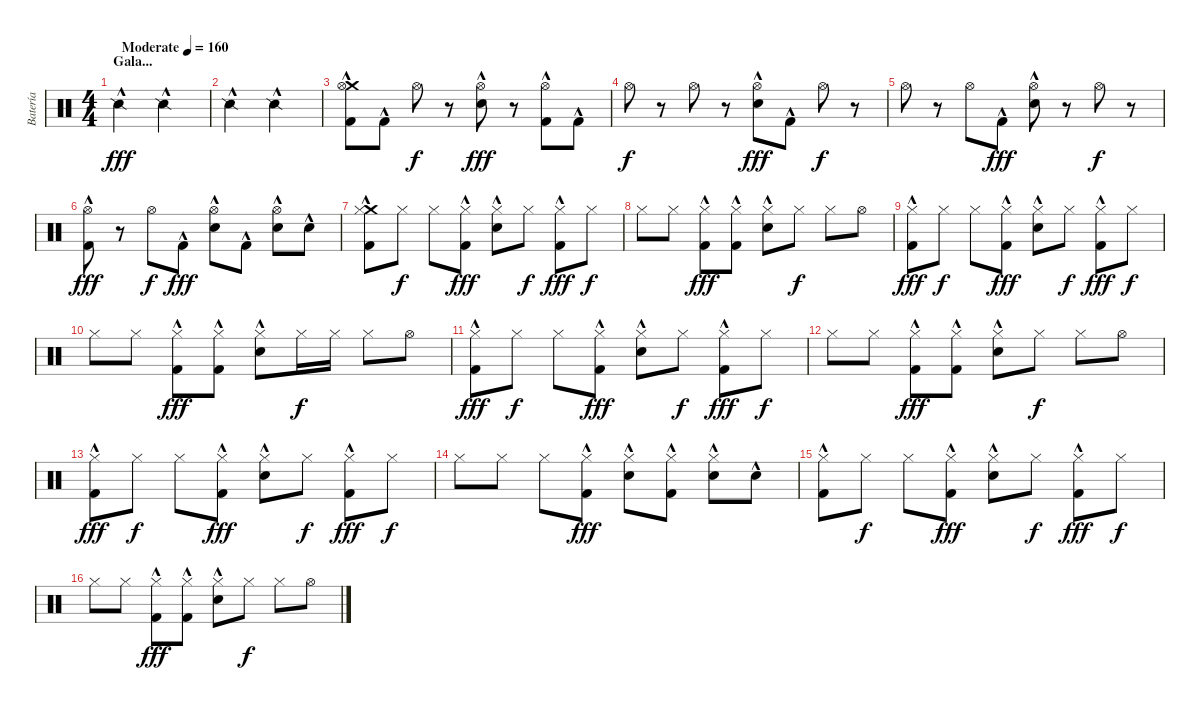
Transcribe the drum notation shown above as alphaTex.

\track ("Batería" "Batería") {instrument percussion}
\staff {score}
\articulation defaults
\ts (4 4)
\section ("" "Gala...")
\tempo (160 "Moderate")
\clef neutral
\ks c "Snare (side stick) 2"{hac}.2{dy fff} "Snare (side stick) 2"{hac}.2
|
"Snare (side stick) 2"{hac}.2 "Snare (side stick) 2"{hac}.2 |
("Crash medium (hit)"{hac} "Hi-Hat (open)" "Kick (hit) 2"{hac}).8 "Kick (hit) 2"{hac}.8 "Hi-Hat (open)".8{dy f} r.8 ("Snare (hit) 2"{hac} "Hi-Hat (open)").8{dy fff} r.8 ("Hi-Hat (open)" "Kick (hit) 2"{hac}).8 "Kick (hit) 2"{hac}.8 |
"Hi-Hat (open)".8{dy f} r.8 "Hi-Hat (open)".8 r.8 ("Snare (hit) 2"{hac} "Hi-Hat (open)").8{dy fff} "Kick (hit) 2"{hac}.8 "Hi-Hat (open)".8{dy f} r.8 |
"Hi-Hat (open)".8 r.8 "Hi-Hat (open)".8 "Kick (hit) 2"{hac}.8{dy fff} ("Snare (hit) 2"{hac} "Hi-Hat (open)").8 r.8 "Hi-Hat (open)".8{dy f} r.8 |
("Hi-Hat (open)" "Kick (hit) 2"{hac}).8{dy fff} r.8 "Hi-Hat (open)".8{dy f} "Kick (hit) 2"{hac}.8{dy fff} ("Snare (hit) 2"{hac} "Hi-Hat (open)").8 "Kick (hit) 2"{hac}.8 ("Snare (hit) 2"{hac} "Hi-Hat (open)").8 "Snare (hit) 2"{hac}.8 |
("Crash medium (hit)"{hac} "Hi-Hat (closed)" "Kick (hit) 2"{hac}).8 "Hi-Hat (closed)".8{dy f} "Hi-Hat (closed)".8 ("Hi-Hat (closed)" "Kick (hit) 2"{hac}).8{dy fff} ("Snare (hit) 2"{hac} "Hi-Hat (closed)").8 "Hi-Hat (closed)".8{dy f} ("Hi-Hat (closed)" "Kick (hit) 2"{hac}).8{dy fff} "Hi-Hat (closed)".8{dy f} |
"Hi-Hat (closed)".8 "Hi-Hat (closed)".8 ("Hi-Hat (closed)" "Kick (hit) 2"{hac}).8{dy fff} ("Hi-Hat (closed)" "Kick (hit) 2"{hac}).8 ("Snare (hit) 2"{hac} "Hi-Hat (closed)").8 "Hi-Hat (closed)".8{dy f} "Hi-Hat (closed)".8 "Hi-Hat (open)".8 |
("Hi-Hat (closed)" "Kick (hit) 2"{hac}).8{dy fff} "Hi-Hat (closed)".8{dy f} "Hi-Hat (closed)".8 ("Hi-Hat (closed)" "Kick (hit) 2"{hac}).8{dy fff} ("Snare (hit) 2"{hac} "Hi-Hat (closed)").8 "Hi-Hat (closed)".8{dy f} ("Hi-Hat (closed)" "Kick (hit) 2"{hac}).8{dy fff} "Hi-Hat (closed)".8{dy f} |
"Hi-Hat (closed)".8 "Hi-Hat (closed)".8 ("Hi-Hat (closed)" "Kick (hit) 2"{hac}).8{dy fff} ("Hi-Hat (closed)" "Kick (hit) 2"{hac}).8 ("Snare (hit) 2"{hac} "Hi-Hat (closed)").8 "Hi-Hat (closed)".16{dy f} "Hi-Hat (closed)".16 "Hi-Hat (closed)".8 "Hi-Hat (open)".8 |
("Hi-Hat (closed)" "Kick (hit) 2"{hac}).8{dy fff} "Hi-Hat (closed)".8{dy f} "Hi-Hat (closed)".8 ("Hi-Hat (closed)" "Kick (hit) 2"{hac}).8{dy fff} ("Snare (hit) 2"{hac} "Hi-Hat (closed)").8 "Hi-Hat (closed)".8{dy f} ("Hi-Hat (closed)" "Kick (hit) 2"{hac}).8{dy fff} "Hi-Hat (closed)".8{dy f} |
"Hi-Hat (closed)".8 "Hi-Hat (closed)".8 ("Hi-Hat (closed)" "Kick (hit) 2"{hac}).8{dy fff} ("Hi-Hat (closed)" "Kick (hit) 2"{hac}).8 ("Snare (hit) 2"{hac} "Hi-Hat (closed)").8 "Hi-Hat (closed)".8{dy f} "Hi-Hat (closed)".8 "Hi-Hat (open)".8 |
("Hi-Hat (closed)" "Kick (hit) 2"{hac}).8{dy fff} "Hi-Hat (closed)".8{dy f} "Hi-Hat (closed)".8 ("Hi-Hat (closed)" "Kick (hit) 2"{hac}).8{dy fff} ("Snare (hit) 2"{hac} "Hi-Hat (closed)").8 "Hi-Hat (closed)".8{dy f} ("Hi-Hat (closed)" "Kick (hit) 2"{hac}).8{dy fff} "Hi-Hat (closed)".8{dy f} |
"Hi-Hat (closed)".8 "Hi-Hat (closed)".8 "Hi-Hat (closed)".8 ("Hi-Hat (closed)" "Kick (hit) 2"{hac}).8{dy fff} ("Snare (hit) 2"{hac} "Hi-Hat (closed)").8 ("Hi-Hat (closed)" "Kick (hit) 2"{hac}).8 ("Snare (hit) 2"{hac} "Hi-Hat (closed)").8 "Snare (hit) 2"{hac}.8 |
("Hi-Hat (closed)" "Kick (hit) 2"{hac}).8 "Hi-Hat (closed)".8{dy f} "Hi-Hat (closed)".8 ("Hi-Hat (closed)" "Kick (hit) 2"{hac}).8{dy fff} ("Snare (hit) 2"{hac} "Hi-Hat (closed)").8 "Hi-Hat (closed)".8{dy f} ("Hi-Hat (closed)" "Kick (hit) 2"{hac}).8{dy fff} "Hi-Hat (closed)".8{dy f} |
"Hi-Hat (closed)".8 "Hi-Hat (closed)".8 ("Hi-Hat (closed)" "Kick (hit) 2"{hac}).8{dy fff} ("Hi-Hat (closed)" "Kick (hit) 2"{hac}).8 ("Snare (hit) 2"{hac} "Hi-Hat (closed)").8 "Hi-Hat (closed)".8{dy f} "Hi-Hat (closed)".8 "Hi-Hat (open)".8
